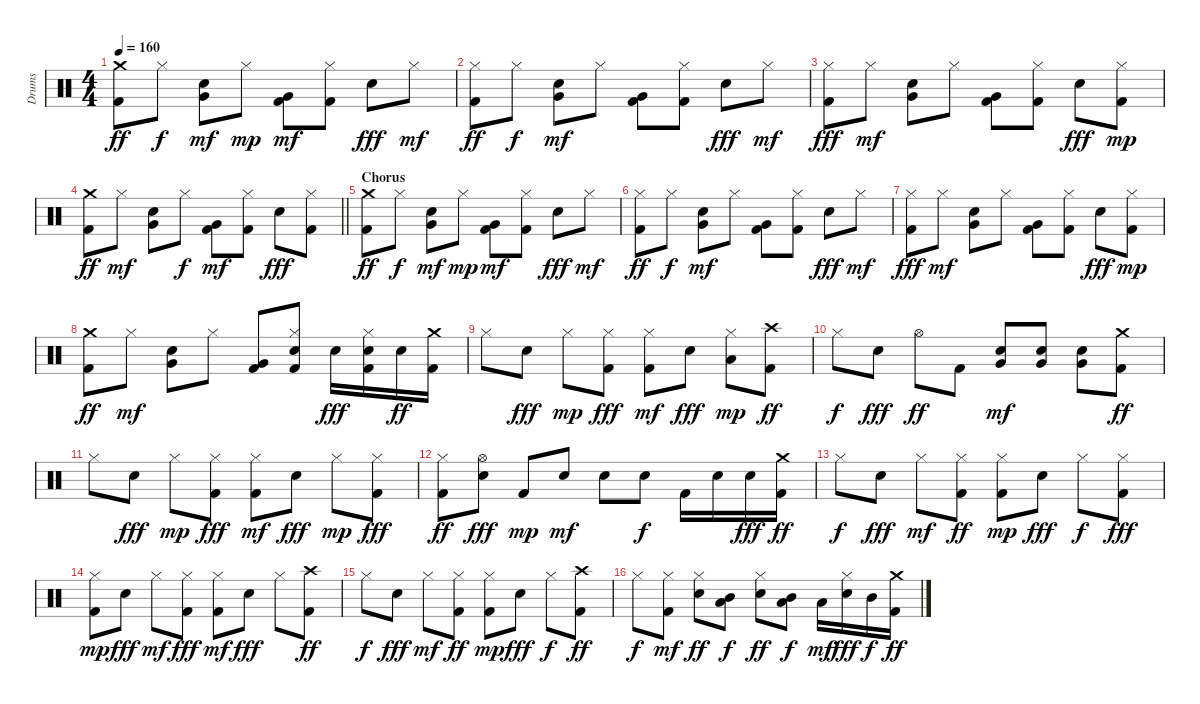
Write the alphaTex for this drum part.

\track ("Drums" "Drums") {instrument percussion}
\staff {score}
\articulation defaults
\ts (4 4)
\tempo 160
\clef neutral
\ks c
("Kick (hit) 2" "Crash medium (hit)").8{dy ff} "Hi-Hat (closed)".8{dy f} ("Electric Snare (hit)" "Very Low Tom (hit)").8{dy mf} "Hi-Hat (closed)".8{dy mp} ("Kick (hit) 2" "Very Low Tom (hit)").8{dy mf} ("Kick (hit) 2" "Hi-Hat (closed)").8 "Electric Snare (hit)".8{dy fff} "Hi-Hat (closed)".8{dy mf} |
("Kick (hit) 2" "Hi-Hat (closed)").8{dy ff} "Hi-Hat (closed)".8{dy f} ("Electric Snare (hit)" "Very Low Tom (hit)").8{dy mf} "Hi-Hat (closed)".8 ("Kick (hit) 2" "Very Low Tom (hit)").8 ("Kick (hit) 2" "Hi-Hat (closed)").8 "Electric Snare (hit)".8{dy fff} "Hi-Hat (closed)".8{dy mf} |
("Kick (hit) 2" "Hi-Hat (closed)").8{dy fff} "Hi-Hat (closed)".8{dy mf} ("Electric Snare (hit)" "Very Low Tom (hit)").8 "Hi-Hat (closed)".8 ("Kick (hit) 2" "Very Low Tom (hit)").8 ("Kick (hit) 2" "Hi-Hat (closed)").8 "Electric Snare (hit)".8{dy fff} ("Kick (hit) 2" "Hi-Hat (closed)").8{dy mp} |
\barLineRight lightlight
("Kick (hit) 2" "Crash medium (hit)").8{dy ff} "Hi-Hat (closed)".8{dy mf} ("Electric Snare (hit)" "Very Low Tom (hit)").8 "Hi-Hat (closed)".8{dy f} ("Kick (hit) 2" "Very Low Tom (hit)").8{dy mf} ("Kick (hit) 2" "Hi-Hat (closed)").8 "Electric Snare (hit)".8{dy fff} ("Kick (hit) 2" "Hi-Hat (closed)").8 |
\section ("" "Chorus")
("Kick (hit) 2" "Crash medium (hit)").8{dy ff} "Hi-Hat (closed)".8{dy f} ("Electric Snare (hit)" "Very Low Tom (hit)").8{dy mf} "Hi-Hat (closed)".8{dy mp} ("Kick (hit) 2" "Very Low Tom (hit)").8{dy mf} ("Kick (hit) 2" "Hi-Hat (closed)").8 "Electric Snare (hit)".8{dy fff} "Hi-Hat (closed)".8{dy mf} |
("Kick (hit) 2" "Hi-Hat (closed)").8{dy ff} "Hi-Hat (closed)".8{dy f} ("Electric Snare (hit)" "Very Low Tom (hit)").8{dy mf} "Hi-Hat (closed)".8 ("Kick (hit) 2" "Very Low Tom (hit)").8 ("Kick (hit) 2" "Hi-Hat (closed)").8 "Electric Snare (hit)".8{dy fff} "Hi-Hat (closed)".8{dy mf} |
("Kick (hit) 2" "Hi-Hat (closed)").8{dy fff} "Hi-Hat (closed)".8{dy mf} ("Electric Snare (hit)" "Very Low Tom (hit)").8 "Hi-Hat (closed)".8 ("Kick (hit) 2" "Very Low Tom (hit)").8 ("Kick (hit) 2" "Hi-Hat (closed)").8 "Electric Snare (hit)".8{dy fff} ("Kick (hit) 2" "Hi-Hat (closed)").8{dy mp} |
("Crash medium (hit)" "Kick (hit) 2").8{dy ff} "Hi-Hat (closed)".8{dy mf} ("Electric Snare (hit)" "Very Low Tom (hit)").8 "Hi-Hat (closed)".8 ("Kick (hit) 2" "Very Low Tom (hit)").8 ("Kick (hit) 2" "Electric Snare (hit)" "Hi-Hat (closed)").8 "Electric Snare (hit)".16{dy fff} ("Kick (hit) 2" "Electric Snare (hit)" "Hi-Hat (closed)").16 "Electric Snare (hit)".16{dy ff} ("Kick (hit) 2" "Crash medium (hit)").16 |
"Hi-Hat (closed)".8 "Electric Snare (hit)".8{dy fff} "Hi-Hat (closed)".8{dy mp} ("Kick (hit) 2" "Hi-Hat (closed)").8{dy fff} ("Kick (hit) 2" "Hi-Hat (closed)").8{dy mf} "Electric Snare (hit)".8{dy fff} ("Hi-Hat (closed)" "Low Tom (hit)").8{dy mp} ("Kick (hit) 2" "Crash high (hit)").8{dy ff} |
"Hi-Hat (closed)".8{dy f} "Electric Snare (hit)".8{dy fff} "Hi-Hat (open)".8{dy ff} "Kick (hit) 2".8 ("Electric Snare (hit)" "Very Low Tom (hit)").8{dy mf} ("Electric Snare (hit)" "Very Low Tom (hit)").8 ("Electric Snare (hit)" "Very Low Tom (hit)").8 ("Kick (hit) 2" "Crash medium (hit)").8{dy ff} |
"Hi-Hat (closed)".8 "Electric Snare (hit)".8{dy fff} "Hi-Hat (closed)".8{dy mp} ("Kick (hit) 2" "Hi-Hat (closed)").8{dy fff} ("Kick (hit) 2" "Hi-Hat (closed)").8{dy mf} "Electric Snare (hit)".8{dy fff} "Hi-Hat (closed)".8{dy mp} ("Kick (hit) 2" "Hi-Hat (closed)").8{dy fff} |
("Kick (hit) 2" "Hi-Hat (closed)").8{dy ff} ("Electric Snare (hit)" "Hi-Hat (open)").8{dy fff} "Kick (hit) 2".8{dy mp} "Electric Snare (hit)".8{dy mf} "Electric Snare (hit)".8 "Electric Snare (hit)".8{dy f} "Kick (hit) 2".16 "Electric Snare (hit)".16 "Electric Snare (hit)".16{dy fff} ("Kick (hit) 2" "Crash medium (hit)").16{dy ff} |
"Hi-Hat (closed)".8{dy f} "Electric Snare (hit)".8{dy fff} "Hi-Hat (closed)".8{dy mf} ("Kick (hit) 2" "Hi-Hat (closed)").8{dy ff} ("Kick (hit) 2" "Hi-Hat (closed)").8{dy mp} "Electric Snare (hit)".8{dy fff} "Hi-Hat (closed)".8{dy f} ("Kick (hit) 2" "Hi-Hat (closed)").8{dy fff} |
("Kick (hit) 2" "Hi-Hat (closed)").8{dy mp} "Electric Snare (hit)".8{dy fff} "Hi-Hat (closed)".8{dy mf} ("Kick (hit) 2" "Hi-Hat (closed)").8{dy fff} ("Kick (hit) 2" "Hi-Hat (closed)").8{dy mf} "Electric Snare (hit)".8{dy fff} "Hi-Hat (closed)".8 ("Kick (hit) 2" "Crash high (hit)").8{dy ff} |
"Hi-Hat (closed)".8{dy f} "Electric Snare (hit)".8{dy fff} "Hi-Hat (closed)".8{dy mf} ("Kick (hit) 2" "Hi-Hat (closed)").8{dy ff} ("Kick (hit) 2" "Hi-Hat (closed)").8{dy mp} "Electric Snare (hit)".8{dy fff} "Hi-Hat (closed)".8{dy f} ("Kick (hit) 2" "Crash high (hit)").8{dy ff} |
"Hi-Hat (closed)".8{dy f} ("Kick (hit) 2" "Hi-Hat (closed)").8{dy mf} ("Electric Snare (hit)" "Hi-Hat (closed)").8{dy ff} ("Low Tom (hit)" "Mid Tom (hit)").8{dy f} ("Electric Snare (hit)" "Hi-Hat (closed)").8{dy ff} ("Low Tom (hit)" "Mid Tom (hit)").8{dy f} "Low Tom (hit)".16{dy mf} ("Electric Snare (hit)" "Hi-Hat (closed)").16{dy fff} "Mid Tom (hit)".16{dy f} ("Kick (hit) 2" "Crash medium (hit)").16{dy ff}
